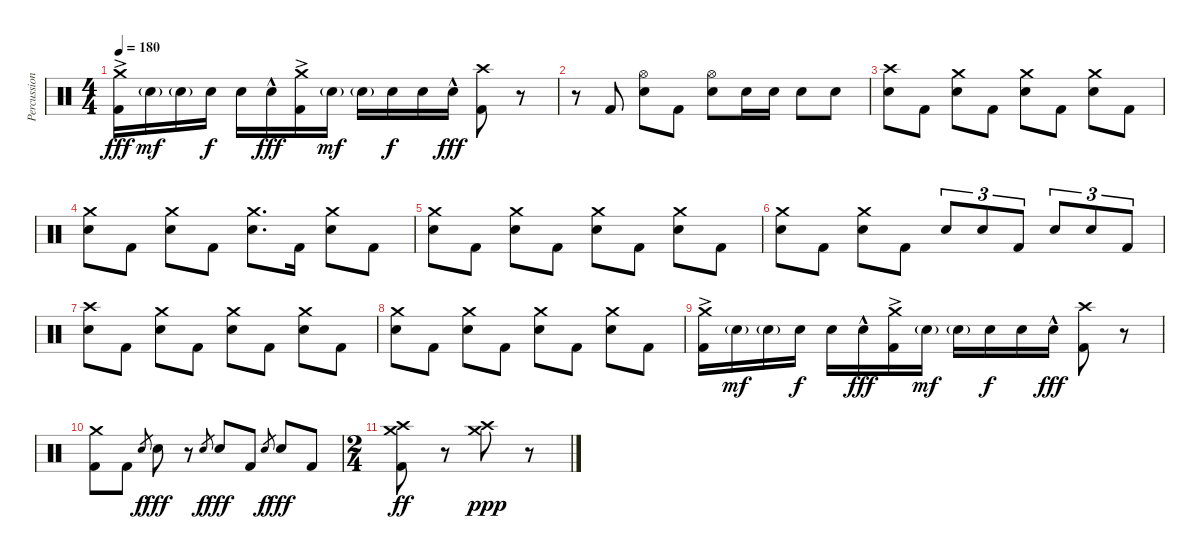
\track ("Percussions" "Percussion") {mute instrument percussion}
\staff {score}
\articulation defaults
\ts (4 4)
\tempo 180
\clef neutral
\ks c
("Crash medium (hit)"{ac} "Kick (hit) 2").16{dy fff} "Electric Snare (hit)"{g}.16{dy mf} "Electric Snare (hit)"{g}.16 "Electric Snare (hit)".16{dy f} "Electric Snare (hit)".16 "Electric Snare (hit)"{hac}.16{dy fff} ("Crash medium (hit)"{ac} "Kick (hit) 2").16 "Electric Snare (hit)"{g}.16{dy mf} "Electric Snare (hit)"{g}.16 "Electric Snare (hit)".16{dy f} "Electric Snare (hit)".16 "Electric Snare (hit)"{hac}.16{dy fff} ("Crash high (hit)" "Kick (hit) 2").8 r.8 |
r.8 "Kick (hit) 2".8 ("Hi-Hat (open)" "Electric Snare (hit)").8 "Kick (hit) 2".8 ("Hi-Hat (open)" "Electric Snare (hit)").8 "Electric Snare (hit)".16 "Electric Snare (hit)".16 "Electric Snare (hit)".8 "Electric Snare (hit)".8 |
("Crash high (hit)" "Electric Snare (hit)").8 "Kick (hit) 2".8 ("Crash medium (hit)" "Electric Snare (hit)").8 "Kick (hit) 2".8 ("Crash medium (hit)" "Electric Snare (hit)").8 "Kick (hit) 2".8 ("Crash medium (hit)" "Electric Snare (hit)").8 "Kick (hit) 2".8 |
("Crash medium (hit)" "Electric Snare (hit)").8 "Kick (hit) 2".8 ("Crash medium (hit)" "Electric Snare (hit)").8 "Kick (hit) 2".8 ("Crash medium (hit)" "Electric Snare (hit)").8{d} "Kick (hit) 2".16 ("Crash medium (hit)" "Electric Snare (hit)").8 "Kick (hit) 2".8 |
("Crash medium (hit)" "Electric Snare (hit)").8 "Kick (hit) 2".8 ("Crash medium (hit)" "Electric Snare (hit)").8 "Kick (hit) 2".8 ("Crash medium (hit)" "Electric Snare (hit)").8 "Kick (hit) 2".8 ("Crash medium (hit)" "Electric Snare (hit)").8 "Kick (hit) 2".8 |
("Crash medium (hit)" "Electric Snare (hit)").8 "Kick (hit) 2".8 ("Crash medium (hit)" "Electric Snare (hit)").8 "Kick (hit) 2".8 "Electric Snare (hit)".8{tu (3 2)} "Electric Snare (hit)".8{tu (3 2)} "Kick (hit) 2".8{tu (3 2)} "Electric Snare (hit)".8{tu (3 2)} "Electric Snare (hit)".8{tu (3 2)} "Kick (hit) 2".8{tu (3 2)} |
("Crash high (hit)" "Electric Snare (hit)").8 "Kick (hit) 2".8 ("Crash medium (hit)" "Electric Snare (hit)").8 "Kick (hit) 2".8 ("Crash medium (hit)" "Electric Snare (hit)").8 "Kick (hit) 2".8 ("Crash medium (hit)" "Electric Snare (hit)").8 "Kick (hit) 2".8 |
("Crash medium (hit)" "Electric Snare (hit)").8 "Kick (hit) 2".8 ("Crash medium (hit)" "Electric Snare (hit)").8 "Kick (hit) 2".8 ("Crash medium (hit)" "Electric Snare (hit)").8 "Kick (hit) 2".8 ("Crash medium (hit)" "Electric Snare (hit)").8 "Kick (hit) 2".8 |
("Crash medium (hit)"{ac} "Kick (hit) 2").16 "Electric Snare (hit)"{g}.16{dy mf} "Electric Snare (hit)"{g}.16 "Electric Snare (hit)".16{dy f} "Electric Snare (hit)".16 "Electric Snare (hit)"{hac}.16{dy fff} ("Crash medium (hit)"{ac} "Kick (hit) 2").16 "Electric Snare (hit)"{g}.16{dy mf} "Electric Snare (hit)"{g}.16 "Electric Snare (hit)".16{dy f} "Electric Snare (hit)".16 "Electric Snare (hit)"{hac}.16{dy fff} ("Crash high (hit)" "Kick (hit) 2").8 r.8 |
("Crash medium (hit)" "Kick (hit) 2").8 "Kick (hit) 2".8 "Electric Snare (hit)".8{gr dy f} "Electric Snare (hit)".8{dy fff} r.8 "Electric Snare (hit)".8{gr dy f} "Electric Snare (hit)".8{dy fff} "Kick (hit) 2".8 "Electric Snare (hit)".8{gr dy f} "Electric Snare (hit)".8{dy fff} "Kick (hit) 2".8 |
\ts (2 4)
("Crash medium (hit)" "Crash high (hit)" "Kick (hit) 2").8{dy ff} r.8 ("Crash medium (hit)" "Crash high (hit)").8{dy ppp} r.8
